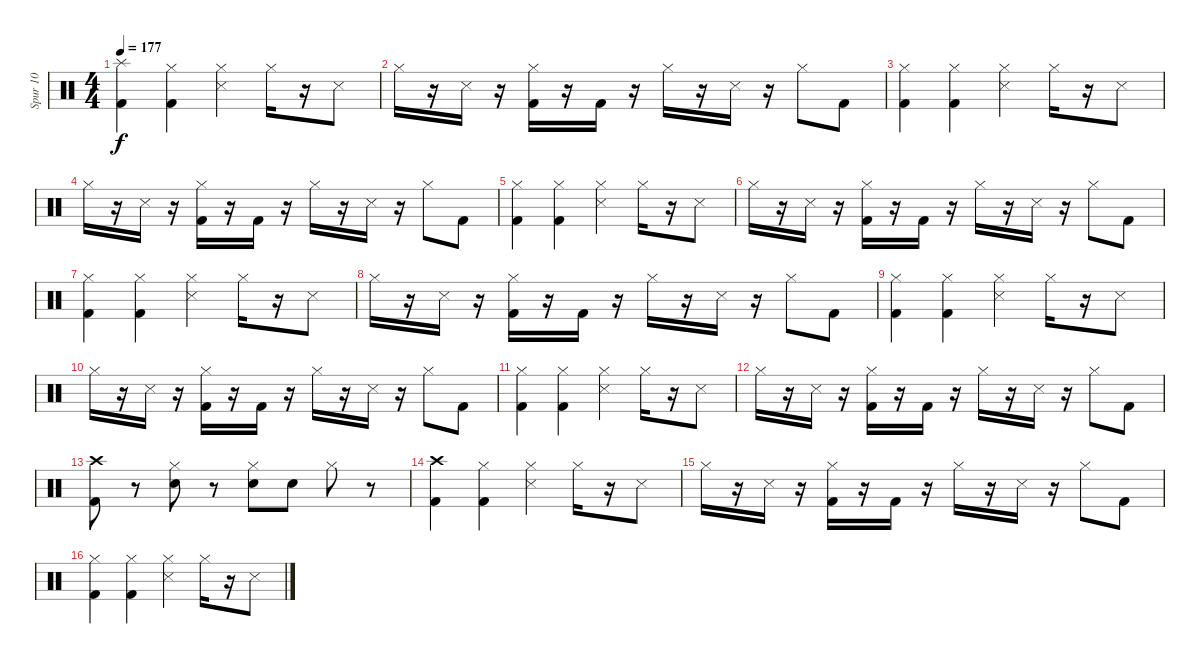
\track ("Spur 10" "Spur 10") {instrument percussion}
\staff {score}
\articulation defaults
\ts (4 4)
\tempo 177
\clef neutral
\ks c
("Splash (hit)" "Kick (hit) 2").4{dy f} ("Hi-Hat (closed)" "Kick (hit) 2").4 ("Hi-Hat (closed)" "Metronome (hit)").4 "Hi-Hat (closed)".16 r.16 "Metronome (hit)".8 |
"Hi-Hat (closed)".16 r.16 "Metronome (hit)".16 r.16 ("Kick (hit) 2" "Hi-Hat (closed)").16 r.16 "Kick (hit) 2".16 r.16 "Hi-Hat (closed)".16 r.16 "Metronome (hit)".16 r.16 "Hi-Hat (closed)".8 "Kick (hit) 2".8 |
("Hi-Hat (closed)" "Kick (hit) 2").4 ("Hi-Hat (closed)" "Kick (hit) 2").4 ("Hi-Hat (closed)" "Metronome (hit)").4 "Hi-Hat (closed)".16 r.16 "Metronome (hit)".8 |
"Hi-Hat (closed)".16 r.16 "Metronome (hit)".16 r.16 ("Kick (hit) 2" "Hi-Hat (closed)").16 r.16 "Kick (hit) 2".16 r.16 "Hi-Hat (closed)".16 r.16 "Metronome (hit)".16 r.16 "Hi-Hat (closed)".8 "Kick (hit) 2".8 |
("Hi-Hat (closed)" "Kick (hit) 2").4 ("Hi-Hat (closed)" "Kick (hit) 2").4 ("Hi-Hat (closed)" "Metronome (hit)").4 "Hi-Hat (closed)".16 r.16 "Metronome (hit)".8 |
"Hi-Hat (closed)".16 r.16 "Metronome (hit)".16 r.16 ("Kick (hit) 2" "Hi-Hat (closed)").16 r.16 "Kick (hit) 2".16 r.16 "Hi-Hat (closed)".16 r.16 "Metronome (hit)".16 r.16 "Hi-Hat (closed)".8 "Kick (hit) 2".8 |
("Hi-Hat (closed)" "Kick (hit) 2").4 ("Hi-Hat (closed)" "Kick (hit) 2").4 ("Hi-Hat (closed)" "Metronome (hit)").4 "Hi-Hat (closed)".16 r.16 "Metronome (hit)".8 |
"Hi-Hat (closed)".16 r.16 "Metronome (hit)".16 r.16 ("Kick (hit) 2" "Hi-Hat (closed)").16 r.16 "Kick (hit) 2".16 r.16 "Hi-Hat (closed)".16 r.16 "Metronome (hit)".16 r.16 "Hi-Hat (closed)".8 "Kick (hit) 2".8 |
("Hi-Hat (closed)" "Kick (hit) 2").4 ("Hi-Hat (closed)" "Kick (hit) 2").4 ("Hi-Hat (closed)" "Metronome (hit)").4 "Hi-Hat (closed)".16 r.16 "Metronome (hit)".8 |
"Hi-Hat (closed)".16 r.16 "Metronome (hit)".16 r.16 ("Kick (hit) 2" "Hi-Hat (closed)").16 r.16 "Kick (hit) 2".16 r.16 "Hi-Hat (closed)".16 r.16 "Metronome (hit)".16 r.16 "Hi-Hat (closed)".8 "Kick (hit) 2".8 |
("Hi-Hat (closed)" "Kick (hit) 2").4 ("Hi-Hat (closed)" "Kick (hit) 2").4 ("Hi-Hat (closed)" "Metronome (hit)").4 "Hi-Hat (closed)".16 r.16 "Metronome (hit)".8 |
"Hi-Hat (closed)".16 r.16 "Metronome (hit)".16 r.16 ("Kick (hit) 2" "Hi-Hat (closed)").16 r.16 "Kick (hit) 2".16 r.16 "Hi-Hat (closed)".16 r.16 "Metronome (hit)".16 r.16 "Hi-Hat (closed)".8 "Kick (hit) 2".8 |
("Crash high (hit)" "Kick (hit) 2").8 r.8 ("Hi-Hat (closed)" "Snare (hit) 2").8 r.8 ("Hi-Hat (closed)" "Snare (hit) 2").8 "Snare (hit) 2".8 "Hi-Hat (closed)".8 r.8 |
("Crash high (hit)" "Kick (hit) 2").4 ("Hi-Hat (closed)" "Kick (hit) 2").4 ("Hi-Hat (closed)" "Metronome (hit)").4 "Hi-Hat (closed)".16 r.16 "Metronome (hit)".8 |
"Hi-Hat (closed)".16 r.16 "Metronome (hit)".16 r.16 ("Kick (hit) 2" "Hi-Hat (closed)").16 r.16 "Kick (hit) 2".16 r.16 "Hi-Hat (closed)".16 r.16 "Metronome (hit)".16 r.16 "Hi-Hat (closed)".8 "Kick (hit) 2".8 |
("Hi-Hat (closed)" "Kick (hit) 2").4 ("Hi-Hat (closed)" "Kick (hit) 2").4 ("Hi-Hat (closed)" "Metronome (hit)").4 "Hi-Hat (closed)".16 r.16 "Metronome (hit)".8
